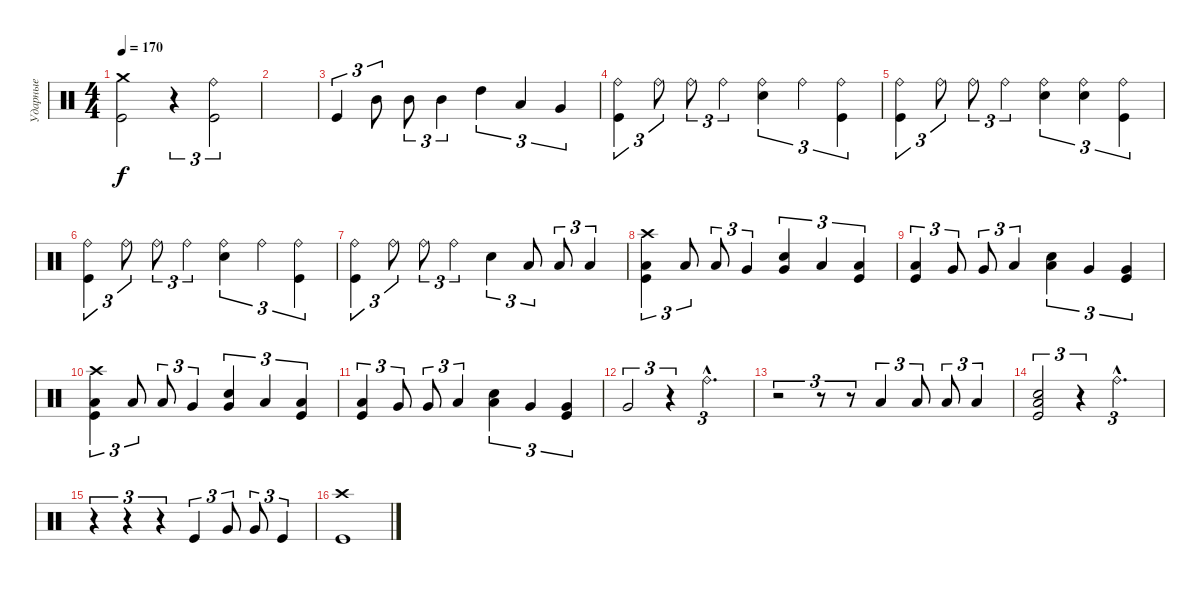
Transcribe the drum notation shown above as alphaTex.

\track ("Ударные" "Ударные") {instrument percussion}
\staff {score}
\articulation defaults
\ts (4 4)
\tempo 170
\clef neutral
\ks c
("Crash medium (hit)" "Kick (hit)").2{dy f} r.4{tu (3 2)} ("Ride (bell)" "Kick (hit)").2{tu (3 2)} |
|
"Kick (hit)".4{tu (3 2)} "Mid Tom (hit)".8{tu (3 2)} "Mid Tom (hit)".8{tu (3 2)} "Mid Tom (hit)".4{tu (3 2)} "High Tom (hit)".4{tu (3 2)} "Low Tom (hit)".4{tu (3 2)} "Very Low Tom (hit)".4{tu (3 2)} |
("Ride (bell)" "Kick (hit)").4{tu (3 2)} "Ride (bell)".8{tu (3 2)} "Ride (bell)".8{tu (3 2)} "Ride (bell)".4{tu (3 2)} ("Ride (bell)" "Electric Snare (hit)").4{tu (3 2)} "Ride (bell)".4{tu (3 2)} ("Ride (bell)" "Kick (hit)").4{tu (3 2)} |
("Ride (bell)" "Kick (hit)").4{tu (3 2)} "Ride (bell)".8{tu (3 2)} "Ride (bell)".8{tu (3 2)} "Ride (bell)".4{tu (3 2)} ("Ride (bell)" "Electric Snare (hit)").4{tu (3 2)} ("Ride (bell)" "Electric Snare (hit)").4{tu (3 2)} ("Ride (bell)" "Kick (hit)").4{tu (3 2)} |
("Ride (bell)" "Kick (hit)").4{tu (3 2)} "Ride (bell)".8{tu (3 2)} "Ride (bell)".8{tu (3 2)} "Ride (bell)".4{tu (3 2)} ("Ride (bell)" "Electric Snare (hit)").4{tu (3 2)} "Ride (bell)".4{tu (3 2)} ("Ride (bell)" "Kick (hit)").4{tu (3 2)} |
("Ride (bell)" "Kick (hit)").4{tu (3 2)} "Ride (bell)".8{tu (3 2)} "Ride (bell)".8{tu (3 2)} "Ride (bell)".4{tu (3 2)} "Electric Snare (hit)".4{tu (3 2)} "Low Tom (hit)".8{tu (3 2)} "Low Tom (hit)".8{tu (3 2)} "Low Tom (hit)".4{tu (3 2)} |
("Crash high (hit)" "Low Tom (hit)" "Kick (hit)").4{tu (3 2)} "Low Tom (hit)".8{tu (3 2)} "Low Tom (hit)".8{tu (3 2)} "Very Low Tom (hit)".4{tu (3 2)} ("Very Low Tom (hit)" "Electric Snare (hit)").4{tu (3 2)} "Low Tom (hit)".4{tu (3 2)} ("Low Tom (hit)" "Kick (hit)").4{tu (3 2)} |
("Low Tom (hit)" "Kick (hit)").4{tu (3 2)} "Very Low Tom (hit)".8{tu (3 2)} "Very Low Tom (hit)".8{tu (3 2)} "Low Tom (hit)".4{tu (3 2)} ("Low Tom (hit)" "Electric Snare (hit)").4{tu (3 2)} "Very Low Tom (hit)".4{tu (3 2)} ("Very Low Tom (hit)" "Kick (hit)").4{tu (3 2)} |
("Crash high (hit)" "Low Tom (hit)" "Kick (hit)").4{tu (3 2)} "Low Tom (hit)".8{tu (3 2)} "Low Tom (hit)".8{tu (3 2)} "Very Low Tom (hit)".4{tu (3 2)} ("Very Low Tom (hit)" "Electric Snare (hit)").4{tu (3 2)} "Low Tom (hit)".4{tu (3 2)} ("Low Tom (hit)" "Kick (hit)").4{tu (3 2)} |
("Low Tom (hit)" "Kick (hit)").4{tu (3 2)} "Very Low Tom (hit)".8{tu (3 2)} "Very Low Tom (hit)".8{tu (3 2)} "Low Tom (hit)".4{tu (3 2)} ("Low Tom (hit)" "Electric Snare (hit)").4{tu (3 2)} "Very Low Tom (hit)".4{tu (3 2)} ("Very Low Tom (hit)" "Kick (hit)").4{tu (3 2)} |
"Very Low Tom (hit)".2{tu (3 2)} r.4{tu (3 2)} "Ride (bell)"{hac}.2{d tu (3 2)} |
r.2{tu (3 2)} r.8{tu (3 2)} r.8{tu (3 2)} "Low Tom (hit)".4{tu (3 2)} "Low Tom (hit)".8{tu (3 2)} "Low Tom (hit)".8{tu (3 2)} "Low Tom (hit)".4{tu (3 2)} |
("Electric Snare (hit)" "Low Tom (hit)" "Kick (hit)").2{tu (3 2)} r.4{tu (3 2)} "Ride (bell)"{hac}.2{d tu (3 2)} |
r.4{tu (3 2)} r.4{tu (3 2)} r.4{tu (3 2)} "Kick (hit)".4{tu (3 2)} "Very Low Tom (hit)".8{tu (3 2)} "Very Low Tom (hit)".8{tu (3 2)} "Kick (hit)".4{tu (3 2)} |
("Crash high (hit)" "Kick (hit)").1
